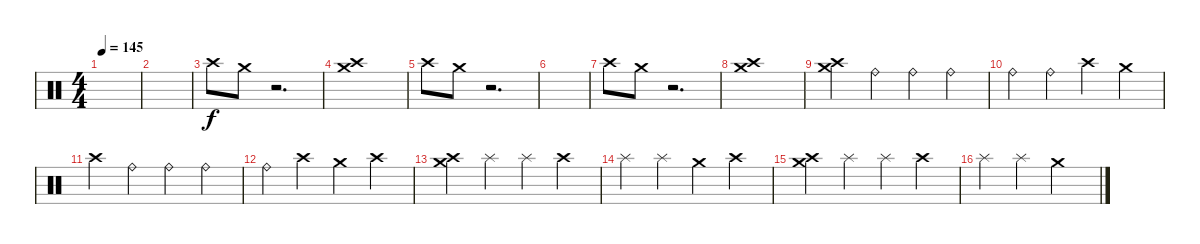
\track "" {instrument percussion}
\staff {score}
\articulation defaults
\ts (4 4)
\tempo 145
\clef neutral
\ks c
|
|
"Crash high (hit)".8 "Crash medium (hit)".8 r.2{d} |
("Crash medium (hit)" "Crash high (hit)").1 |
"Crash high (hit)".8 "Crash medium (hit)".8 r.2{d} |
|
"Crash high (hit)".8 "Crash medium (hit)".8 r.2{d} |
("Crash medium (hit)" "Crash high (hit)").1 |
("Crash medium (hit)" "Crash high (hit)").4 "Ride (bell)".4 "Ride (bell)".4 "Ride (bell)".4 |
"Ride (bell)".4 "Ride (bell)".4 "Crash high (hit)".4 "Crash medium (hit)".4 |
"Crash high (hit)".4 "Ride (bell)".4 "Ride (bell)".4 "Ride (bell)".4 |
"Ride (bell)".4 "Crash high (hit)".4 "Crash medium (hit)".4 "Crash high (hit)".4 |
("Crash medium (hit)" "Crash high (hit)").4 "Splash (hit)".4 "Splash (hit)".4 "Crash high (hit)".4 |
"Splash (hit)".4 "Splash (hit)".4 "Crash medium (hit)".4 "Crash high (hit)".4 |
("Crash medium (hit)" "Crash high (hit)").4 "Splash (hit)".4 "Splash (hit)".4 "Crash high (hit)".4 |
"Splash (hit)".4 "Splash (hit)".4 "Crash medium (hit)".2
